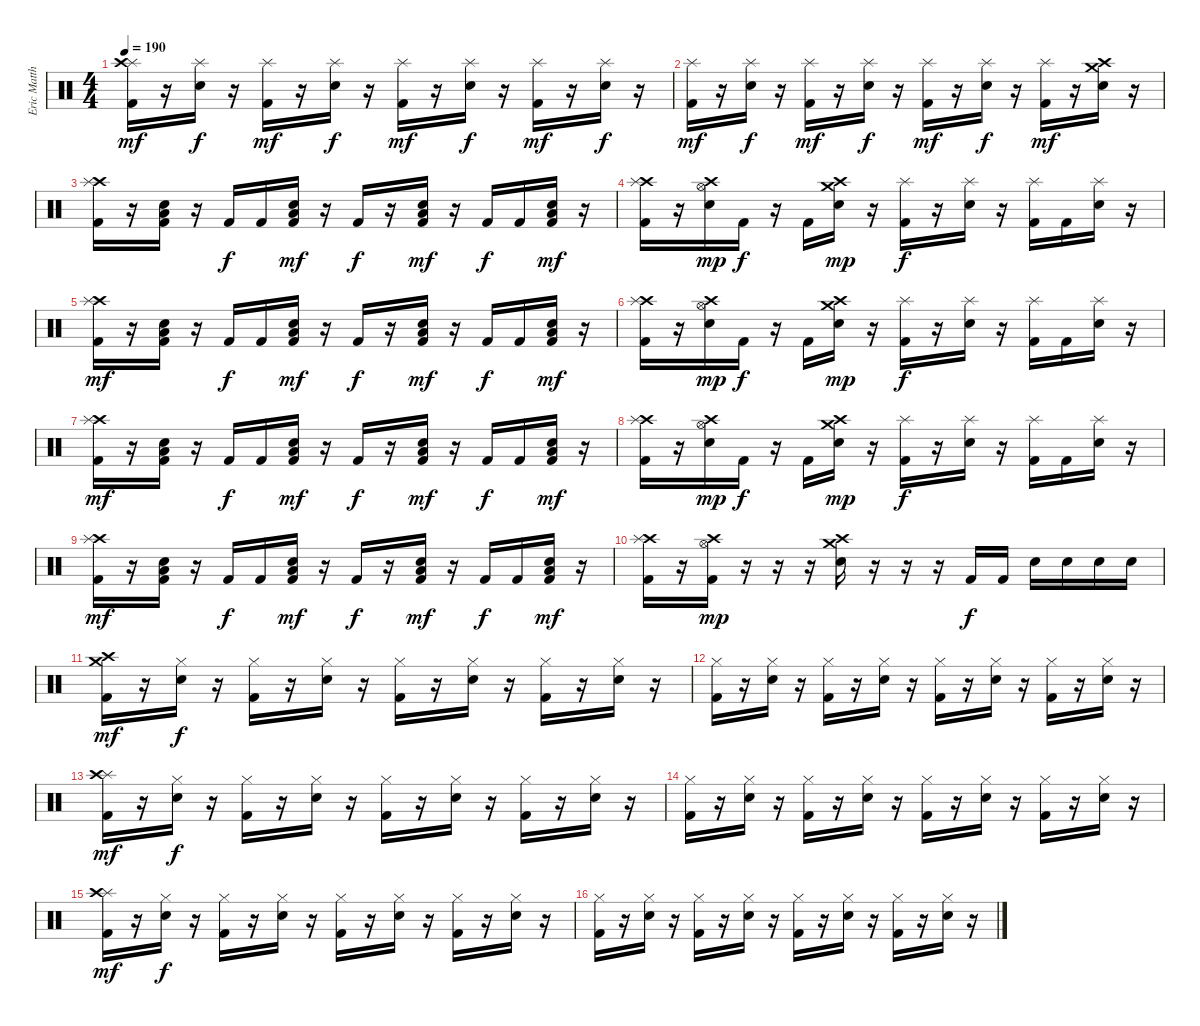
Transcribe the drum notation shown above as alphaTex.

\track ("Eric Matthews (drums)" "Eric Matth") {instrument percussion}
\staff {score}
\articulation defaults
\ts (4 4)
\tempo 190
\clef neutral
\ks c
("Splash (hit)" "Crash high (hit)" "Kick (hit) 2").16{dy mf} r.16 ("Splash (hit)" "Snare (hit) 2").16{dy f} r.16 ("Splash (hit)" "Kick (hit) 2").16{dy mf} r.16 ("Splash (hit)" "Snare (hit) 2").16{dy f} r.16 ("Splash (hit)" "Kick (hit) 2").16{dy mf} r.16 ("Splash (hit)" "Snare (hit) 2").16{dy f} r.16 ("Splash (hit)" "Kick (hit) 2").16{dy mf} r.16 ("Splash (hit)" "Snare (hit) 2").16{dy f} r.16 |
("Splash (hit)" "Kick (hit) 2").16{dy mf} r.16 ("Splash (hit)" "Snare (hit) 2").16{dy f} r.16 ("Splash (hit)" "Kick (hit) 2").16{dy mf} r.16 ("Splash (hit)" "Snare (hit) 2").16{dy f} r.16 ("Splash (hit)" "Kick (hit) 2").16{dy mf} r.16 ("Splash (hit)" "Snare (hit) 2").16{dy f} r.16 ("Splash (hit)" "Kick (hit) 2").16{dy mf} r.16 ("Crash medium (hit)" "Crash high (hit)" "Snare (hit) 2").16 r.16 |
("Crash high (hit)" "Splash (hit)" "Kick (hit) 2").16 r.16 ("Snare (hit) 2" "Low Tom (hit)" "Kick (hit) 2").16 r.16 "Kick (hit) 2".16{dy f} "Kick (hit) 2".16 ("Snare (hit) 2" "Low Tom (hit)" "Kick (hit) 2").16{dy mf} r.16 "Kick (hit) 2".16{dy f} r.16 ("Snare (hit) 2" "Low Tom (hit)" "Kick (hit) 2").16{dy mf} r.16 "Kick (hit) 2".16{dy f} "Kick (hit) 2".16 ("Snare (hit) 2" "Low Tom (hit)" "Kick (hit) 2").16{dy mf} r.16 |
("Crash high (hit)" "Splash (hit)" "Kick (hit) 2").16 r.16 ("Crash high (hit)" "Hi-Hat (open)" "Snare (hit) 2").16{dy mp} "Kick (hit) 2".16{dy f} r.16 "Kick (hit) 2".16 ("Crash high (hit)" "Crash medium (hit)" "Snare (hit) 2").16{dy mp} r.16 ("Splash (hit)" "Kick (hit) 2").16{dy f} r.16 ("Splash (hit)" "Snare (hit) 2").16 r.16 ("Splash (hit)" "Kick (hit) 2").16 "Kick (hit) 2".16 ("Splash (hit)" "Snare (hit) 2").16 r.16 |
("Crash high (hit)" "Splash (hit)" "Kick (hit) 2").16{dy mf} r.16 ("Snare (hit) 2" "Low Tom (hit)" "Kick (hit) 2").16 r.16 "Kick (hit) 2".16{dy f} "Kick (hit) 2".16 ("Snare (hit) 2" "Low Tom (hit)" "Kick (hit) 2").16{dy mf} r.16 "Kick (hit) 2".16{dy f} r.16 ("Snare (hit) 2" "Low Tom (hit)" "Kick (hit) 2").16{dy mf} r.16 "Kick (hit) 2".16{dy f} "Kick (hit) 2".16 ("Snare (hit) 2" "Low Tom (hit)" "Kick (hit) 2").16{dy mf} r.16 |
("Crash high (hit)" "Splash (hit)" "Kick (hit) 2").16 r.16 ("Crash high (hit)" "Hi-Hat (open)" "Snare (hit) 2").16{dy mp} "Kick (hit) 2".16{dy f} r.16 "Kick (hit) 2".16 ("Crash high (hit)" "Crash medium (hit)" "Snare (hit) 2").16{dy mp} r.16 ("Splash (hit)" "Kick (hit) 2").16{dy f} r.16 ("Splash (hit)" "Snare (hit) 2").16 r.16 ("Splash (hit)" "Kick (hit) 2").16 "Kick (hit) 2".16 ("Splash (hit)" "Snare (hit) 2").16 r.16 |
("Crash high (hit)" "Splash (hit)" "Kick (hit) 2").16{dy mf} r.16 ("Snare (hit) 2" "Low Tom (hit)" "Kick (hit) 2").16 r.16 "Kick (hit) 2".16{dy f} "Kick (hit) 2".16 ("Snare (hit) 2" "Low Tom (hit)" "Kick (hit) 2").16{dy mf} r.16 "Kick (hit) 2".16{dy f} r.16 ("Snare (hit) 2" "Low Tom (hit)" "Kick (hit) 2").16{dy mf} r.16 "Kick (hit) 2".16{dy f} "Kick (hit) 2".16 ("Snare (hit) 2" "Low Tom (hit)" "Kick (hit) 2").16{dy mf} r.16 |
("Crash high (hit)" "Splash (hit)" "Kick (hit) 2").16 r.16 ("Crash high (hit)" "Hi-Hat (open)" "Snare (hit) 2").16{dy mp} "Kick (hit) 2".16{dy f} r.16 "Kick (hit) 2".16 ("Crash high (hit)" "Crash medium (hit)" "Snare (hit) 2").16{dy mp} r.16 ("Splash (hit)" "Kick (hit) 2").16{dy f} r.16 ("Splash (hit)" "Snare (hit) 2").16 r.16 ("Splash (hit)" "Kick (hit) 2").16 "Kick (hit) 2".16 ("Splash (hit)" "Snare (hit) 2").16 r.16 |
("Crash high (hit)" "Splash (hit)" "Kick (hit) 2").16{dy mf} r.16 ("Snare (hit) 2" "Low Tom (hit)" "Kick (hit) 2").16 r.16 "Kick (hit) 2".16{dy f} "Kick (hit) 2".16 ("Snare (hit) 2" "Low Tom (hit)" "Kick (hit) 2").16{dy mf} r.16 "Kick (hit) 2".16{dy f} r.16 ("Snare (hit) 2" "Low Tom (hit)" "Kick (hit) 2").16{dy mf} r.16 "Kick (hit) 2".16{dy f} "Kick (hit) 2".16 ("Snare (hit) 2" "Low Tom (hit)" "Kick (hit) 2").16{dy mf} r.16 |
("Crash high (hit)" "Splash (hit)" "Kick (hit) 2").16 r.16 ("Crash high (hit)" "Hi-Hat (open)" "Kick (hit) 2").16{dy mp} r.16 r.16 r.16 ("Crash high (hit)" "Crash medium (hit)" "Snare (hit) 2").16 r.16 r.16 r.16 "Kick (hit) 2".16{dy f} "Kick (hit) 2".16 "Snare (hit) 2".16 "Snare (hit) 2".16 "Snare (hit) 2".16 "Snare (hit) 2".16 |
("Crash high (hit)" "Crash medium (hit)" "Kick (hit) 2").16{dy mf} r.16 ("Hi-Hat (closed)" "Snare (hit) 2").16{dy f} r.16 ("Hi-Hat (closed)" "Kick (hit) 2").16 r.16 ("Hi-Hat (closed)" "Snare (hit) 2").16 r.16 ("Hi-Hat (closed)" "Kick (hit) 2").16 r.16 ("Hi-Hat (closed)" "Snare (hit) 2").16 r.16 ("Hi-Hat (closed)" "Kick (hit) 2").16 r.16 ("Hi-Hat (closed)" "Snare (hit) 2").16 r.16 |
("Hi-Hat (closed)" "Kick (hit) 2").16 r.16 ("Hi-Hat (closed)" "Snare (hit) 2").16 r.16 ("Hi-Hat (closed)" "Kick (hit) 2").16 r.16 ("Hi-Hat (closed)" "Snare (hit) 2").16 r.16 ("Hi-Hat (closed)" "Kick (hit) 2").16 r.16 ("Hi-Hat (closed)" "Snare (hit) 2").16 r.16 ("Hi-Hat (closed)" "Kick (hit) 2").16 r.16 ("Hi-Hat (closed)" "Snare (hit) 2").16 r.16 |
("Splash (hit)" "Crash high (hit)" "Kick (hit) 2").16{dy mf} r.16 ("Hi-Hat (closed)" "Snare (hit) 2").16{dy f} r.16 ("Hi-Hat (closed)" "Kick (hit) 2").16 r.16 ("Hi-Hat (closed)" "Snare (hit) 2").16 r.16 ("Hi-Hat (closed)" "Kick (hit) 2").16 r.16 ("Hi-Hat (closed)" "Snare (hit) 2").16 r.16 ("Hi-Hat (closed)" "Kick (hit) 2").16 r.16 ("Hi-Hat (closed)" "Snare (hit) 2").16 r.16 |
("Hi-Hat (closed)" "Kick (hit) 2").16 r.16 ("Hi-Hat (closed)" "Snare (hit) 2").16 r.16 ("Hi-Hat (closed)" "Kick (hit) 2").16 r.16 ("Hi-Hat (closed)" "Snare (hit) 2").16 r.16 ("Hi-Hat (closed)" "Kick (hit) 2").16 r.16 ("Hi-Hat (closed)" "Snare (hit) 2").16 r.16 ("Hi-Hat (closed)" "Kick (hit) 2").16 r.16 ("Hi-Hat (closed)" "Snare (hit) 2").16 r.16 |
("Splash (hit)" "Crash high (hit)" "Kick (hit) 2").16{dy mf} r.16 ("Hi-Hat (closed)" "Snare (hit) 2").16{dy f} r.16 ("Hi-Hat (closed)" "Kick (hit) 2").16 r.16 ("Hi-Hat (closed)" "Snare (hit) 2").16 r.16 ("Hi-Hat (closed)" "Kick (hit) 2").16 r.16 ("Hi-Hat (closed)" "Snare (hit) 2").16 r.16 ("Hi-Hat (closed)" "Kick (hit) 2").16 r.16 ("Hi-Hat (closed)" "Snare (hit) 2").16 r.16 |
("Hi-Hat (closed)" "Kick (hit) 2").16 r.16 ("Hi-Hat (closed)" "Snare (hit) 2").16 r.16 ("Hi-Hat (closed)" "Kick (hit) 2").16 r.16 ("Hi-Hat (closed)" "Snare (hit) 2").16 r.16 ("Hi-Hat (closed)" "Kick (hit) 2").16 r.16 ("Hi-Hat (closed)" "Snare (hit) 2").16 r.16 ("Hi-Hat (closed)" "Kick (hit) 2").16 r.16 ("Hi-Hat (closed)" "Snare (hit) 2").16 r.16
